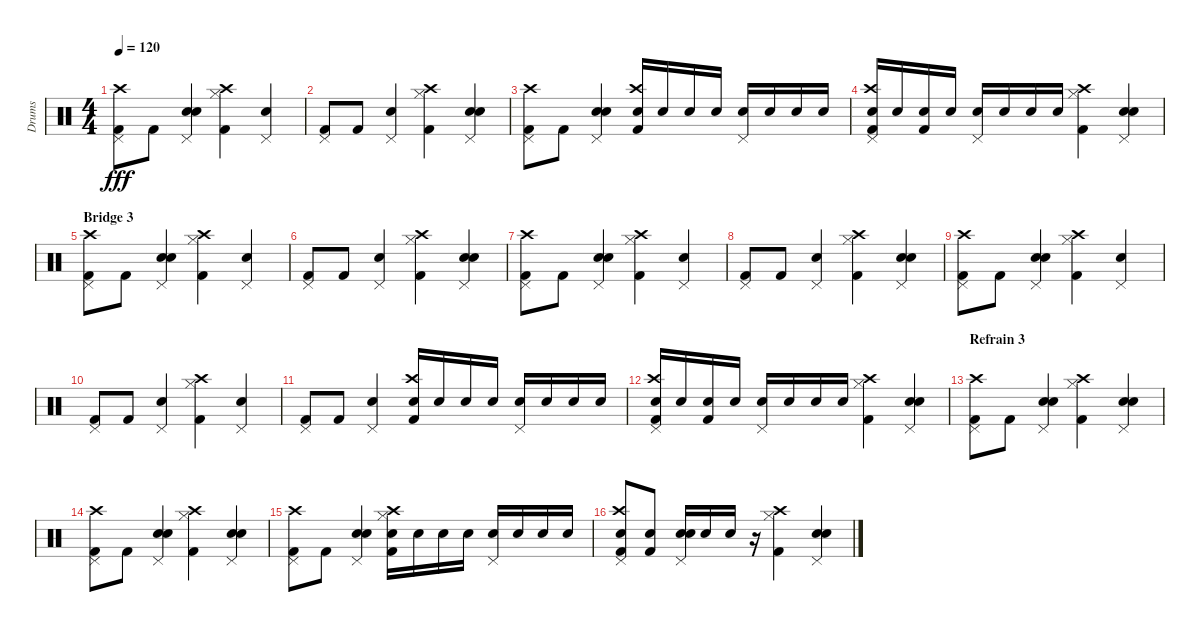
\track ("Drums" "Drums") {instrument percussion}
\staff {score}
\articulation defaults
\ts (4 4)
\tempo 120
\clef neutral
\ks c
("Pedal Hi-Hat (hit)" "Kick (hit) 2" "Crash high (hit)").8{dy fff} "Kick (hit) 2".8 ("Electric Snare (hit)" "Pedal Hi-Hat (hit)" "Snare (hit) 2").4 ("Hi-Hat (closed)" "Kick (hit) 2" "Crash high (hit)").4 ("Electric Snare (hit)" "Pedal Hi-Hat (hit)").4 |
("Pedal Hi-Hat (hit)" "Kick (hit) 2").8 "Kick (hit) 2".8 ("Electric Snare (hit)" "Pedal Hi-Hat (hit)").4 ("Hi-Hat (closed)" "Kick (hit) 2" "Crash high (hit)").4 ("Electric Snare (hit)" "Pedal Hi-Hat (hit)" "Snare (hit) 2").4 |
("Pedal Hi-Hat (hit)" "Kick (hit) 2" "Crash high (hit)").8 "Kick (hit) 2".8 ("Electric Snare (hit)" "Pedal Hi-Hat (hit)" "Snare (hit) 2").4 ("Kick (hit) 2" "Crash high (hit)" "Snare (hit) 2").16 "Snare (hit) 2".16 "Snare (hit) 2".16 "Snare (hit) 2".16 ("Pedal Hi-Hat (hit)" "Electric Snare (hit)").16 "Electric Snare (hit)".16 "Electric Snare (hit)".16 "Electric Snare (hit)".16 |
("Pedal Hi-Hat (hit)" "Kick (hit) 2" "Crash high (hit)" "Electric Snare (hit)").16 "Electric Snare (hit)".16 ("Kick (hit) 2" "Electric Snare (hit)").16 "Electric Snare (hit)".16 ("Pedal Hi-Hat (hit)" "Snare (hit) 2").16 "Snare (hit) 2".16 "Snare (hit) 2".16 "Snare (hit) 2".16 ("Hi-Hat (closed)" "Kick (hit) 2" "Crash high (hit)").4 ("Electric Snare (hit)" "Pedal Hi-Hat (hit)" "Snare (hit) 2").4 |
\section ("" "Bridge 3")
("Pedal Hi-Hat (hit)" "Kick (hit) 2" "Crash high (hit)").8 "Kick (hit) 2".8 ("Electric Snare (hit)" "Pedal Hi-Hat (hit)" "Snare (hit) 2").4 ("Hi-Hat (closed)" "Kick (hit) 2" "Crash high (hit)").4 ("Electric Snare (hit)" "Pedal Hi-Hat (hit)").4 |
("Pedal Hi-Hat (hit)" "Kick (hit) 2").8 "Kick (hit) 2".8 ("Electric Snare (hit)" "Pedal Hi-Hat (hit)").4 ("Hi-Hat (closed)" "Kick (hit) 2" "Crash high (hit)").4 ("Electric Snare (hit)" "Pedal Hi-Hat (hit)" "Snare (hit) 2").4 |
("Pedal Hi-Hat (hit)" "Kick (hit) 2" "Crash high (hit)").8 "Kick (hit) 2".8 ("Electric Snare (hit)" "Pedal Hi-Hat (hit)" "Snare (hit) 2").4 ("Hi-Hat (closed)" "Kick (hit) 2" "Crash high (hit)").4 ("Electric Snare (hit)" "Pedal Hi-Hat (hit)").4 |
("Pedal Hi-Hat (hit)" "Kick (hit) 2").8 "Kick (hit) 2".8 ("Electric Snare (hit)" "Pedal Hi-Hat (hit)").4 ("Hi-Hat (closed)" "Kick (hit) 2" "Crash high (hit)").4 ("Electric Snare (hit)" "Pedal Hi-Hat (hit)" "Snare (hit) 2").4 |
("Pedal Hi-Hat (hit)" "Kick (hit) 2" "Crash high (hit)").8 "Kick (hit) 2".8 ("Electric Snare (hit)" "Pedal Hi-Hat (hit)" "Snare (hit) 2").4 ("Hi-Hat (closed)" "Kick (hit) 2" "Crash high (hit)").4 ("Electric Snare (hit)" "Pedal Hi-Hat (hit)").4 |
("Pedal Hi-Hat (hit)" "Kick (hit) 2").8 "Kick (hit) 2".8 ("Electric Snare (hit)" "Pedal Hi-Hat (hit)").4 ("Hi-Hat (closed)" "Kick (hit) 2" "Crash high (hit)").4 ("Electric Snare (hit)" "Pedal Hi-Hat (hit)").4 |
("Pedal Hi-Hat (hit)" "Kick (hit) 2").8 "Kick (hit) 2".8 ("Electric Snare (hit)" "Pedal Hi-Hat (hit)").4 ("Kick (hit) 2" "Crash high (hit)" "Snare (hit) 2").16 "Snare (hit) 2".16 "Snare (hit) 2".16 "Snare (hit) 2".16 ("Pedal Hi-Hat (hit)" "Electric Snare (hit)").16 "Electric Snare (hit)".16 "Electric Snare (hit)".16 "Electric Snare (hit)".16 |
("Pedal Hi-Hat (hit)" "Kick (hit) 2" "Crash high (hit)" "Electric Snare (hit)").16 "Electric Snare (hit)".16 ("Kick (hit) 2" "Electric Snare (hit)").16 "Electric Snare (hit)".16 ("Pedal Hi-Hat (hit)" "Snare (hit) 2").16 "Snare (hit) 2".16 "Snare (hit) 2".16 "Snare (hit) 2".16 ("Hi-Hat (closed)" "Kick (hit) 2" "Crash high (hit)").4 ("Electric Snare (hit)" "Pedal Hi-Hat (hit)" "Snare (hit) 2").4 |
\section ("" "Refrain 3")
("Pedal Hi-Hat (hit)" "Kick (hit) 2" "Crash high (hit)").8 "Kick (hit) 2".8 ("Electric Snare (hit)" "Pedal Hi-Hat (hit)" "Snare (hit) 2").4 ("Hi-Hat (closed)" "Kick (hit) 2" "Crash high (hit)").4 ("Electric Snare (hit)" "Pedal Hi-Hat (hit)" "Snare (hit) 2").4 |
("Pedal Hi-Hat (hit)" "Kick (hit) 2" "Crash high (hit)").8 "Kick (hit) 2".8 ("Electric Snare (hit)" "Pedal Hi-Hat (hit)" "Snare (hit) 2").4 ("Hi-Hat (closed)" "Kick (hit) 2" "Crash high (hit)").4 ("Electric Snare (hit)" "Pedal Hi-Hat (hit)" "Snare (hit) 2").4 |
("Pedal Hi-Hat (hit)" "Kick (hit) 2" "Crash high (hit)").8 "Kick (hit) 2".8 ("Electric Snare (hit)" "Pedal Hi-Hat (hit)" "Snare (hit) 2").4 ("Hi-Hat (closed)" "Kick (hit) 2" "Crash high (hit)" "Electric Snare (hit)").16 "Electric Snare (hit)".16 "Electric Snare (hit)".16 "Electric Snare (hit)".16 ("Pedal Hi-Hat (hit)" "Snare (hit) 2").16 "Snare (hit) 2".16 "Snare (hit) 2".16 "Snare (hit) 2".16 |
("Pedal Hi-Hat (hit)" "Kick (hit) 2" "Crash high (hit)" "Snare (hit) 2").8 ("Kick (hit) 2" "Snare (hit) 2").8 ("Electric Snare (hit)" "Pedal Hi-Hat (hit)" "Snare (hit) 2").16 "Snare (hit) 2".16 "Snare (hit) 2".16 r.16 ("Hi-Hat (closed)" "Kick (hit) 2" "Crash high (hit)").4 ("Electric Snare (hit)" "Pedal Hi-Hat (hit)" "Snare (hit) 2").4
